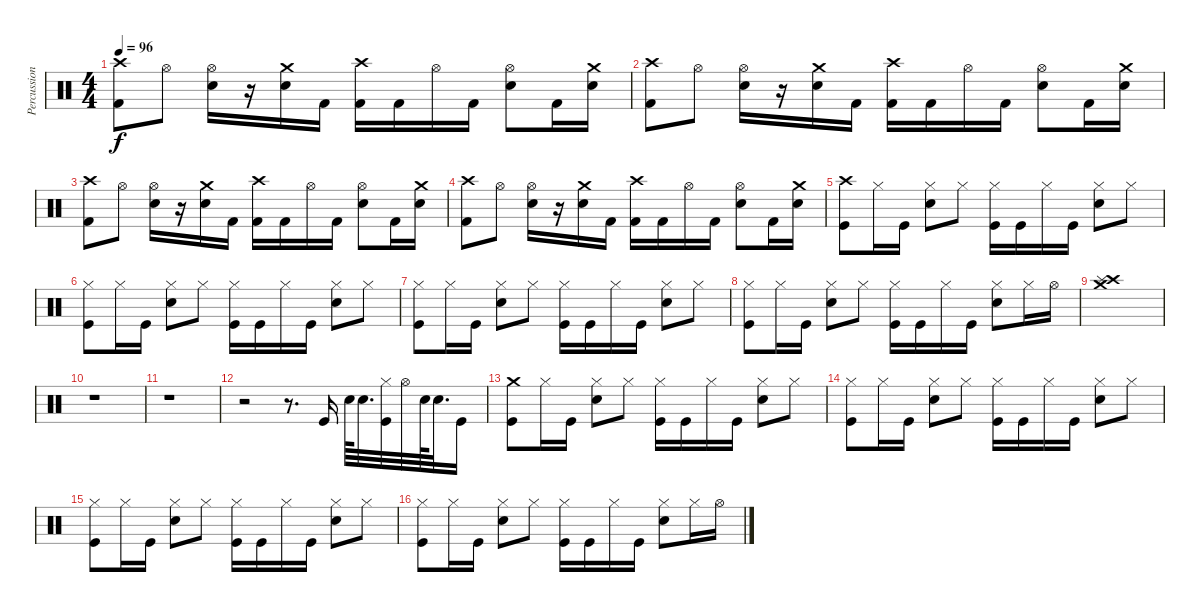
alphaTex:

\track ("Percussion" "Percussion") {instrument percussion}
\staff {score}
\articulation defaults
\ts (4 4)
\tempo 96
\clef neutral
\ks c
("Crash high (hit)" "Kick (hit) 2").8{dy f} "Hi-Hat (open)".8 ("Hi-Hat (open)" "Electric Snare (hit)").16 r.16 ("Crash medium (hit)" "Electric Snare (hit)").16 "Kick (hit) 2".16 ("Crash high (hit)" "Kick (hit) 2").16 "Kick (hit) 2".16 "Hi-Hat (open)".16 "Kick (hit) 2".16 ("Hi-Hat (open)" "Electric Snare (hit)").8 "Kick (hit) 2".16 ("Crash medium (hit)" "Electric Snare (hit)").16 |
("Crash high (hit)" "Kick (hit) 2").8 "Hi-Hat (open)".8 ("Hi-Hat (open)" "Electric Snare (hit)").16 r.16 ("Crash medium (hit)" "Electric Snare (hit)").16 "Kick (hit) 2".16 ("Crash high (hit)" "Kick (hit) 2").16 "Kick (hit) 2".16 "Hi-Hat (open)".16 "Kick (hit) 2".16 ("Hi-Hat (open)" "Electric Snare (hit)").8 "Kick (hit) 2".16 ("Crash medium (hit)" "Electric Snare (hit)").16 |
("Crash high (hit)" "Kick (hit) 2").8 "Hi-Hat (open)".8 ("Hi-Hat (open)" "Electric Snare (hit)").16 r.16 ("Crash medium (hit)" "Electric Snare (hit)").16 "Kick (hit) 2".16 ("Crash high (hit)" "Kick (hit) 2").16 "Kick (hit) 2".16 "Hi-Hat (open)".16 "Kick (hit) 2".16 ("Hi-Hat (open)" "Electric Snare (hit)").8 "Kick (hit) 2".16 ("Crash medium (hit)" "Electric Snare (hit)").16 |
("Crash high (hit)" "Kick (hit) 2").8 "Hi-Hat (open)".8 ("Hi-Hat (open)" "Electric Snare (hit)").16 r.16 ("Crash medium (hit)" "Electric Snare (hit)").16 "Kick (hit) 2".16 ("Crash high (hit)" "Kick (hit) 2").16 "Kick (hit) 2".16 "Hi-Hat (open)".16 "Kick (hit) 2".16 ("Hi-Hat (open)" "Electric Snare (hit)").8 "Kick (hit) 2".16 ("Crash medium (hit)" "Electric Snare (hit)").16 |
("Crash high (hit)" "Kick (hit)").8 "Hi-Hat (closed)".16 "Kick (hit)".16 ("Hi-Hat (closed)" "Snare (hit) 2").8 "Hi-Hat (closed)".8 ("Hi-Hat (closed)" "Kick (hit)").16 "Kick (hit)".16 "Hi-Hat (closed)".16 "Kick (hit)".16 ("Hi-Hat (closed)" "Snare (hit) 2").8 "Hi-Hat (closed)".8 |
("Hi-Hat (closed)" "Kick (hit)").8 "Hi-Hat (closed)".16 "Kick (hit)".16 ("Hi-Hat (closed)" "Snare (hit) 2").8 "Hi-Hat (closed)".8 ("Hi-Hat (closed)" "Kick (hit)").16 "Kick (hit)".16 "Hi-Hat (closed)".16 "Kick (hit)".16 ("Hi-Hat (closed)" "Snare (hit) 2").8 "Hi-Hat (closed)".8 |
("Hi-Hat (closed)" "Kick (hit)").8 "Hi-Hat (closed)".16 "Kick (hit)".16 ("Hi-Hat (closed)" "Snare (hit) 2").8 "Hi-Hat (closed)".8 ("Hi-Hat (closed)" "Kick (hit)").16 "Kick (hit)".16 "Hi-Hat (closed)".16 "Kick (hit)".16 ("Hi-Hat (closed)" "Snare (hit) 2").8 "Hi-Hat (closed)".8 |
("Hi-Hat (closed)" "Kick (hit)").8 "Hi-Hat (closed)".16 "Kick (hit)".16 ("Hi-Hat (closed)" "Snare (hit) 2").8 "Hi-Hat (closed)".8 ("Hi-Hat (closed)" "Kick (hit)").16 "Kick (hit)".16 "Hi-Hat (closed)".16 "Kick (hit)".16 ("Hi-Hat (closed)" "Snare (hit) 2").8 "Hi-Hat (closed)".16 "Hi-Hat (open)".16 |
("Crash high (hit)" "Splash (hit)" "Crash medium (hit)").1 |
r.1 |
r.1 |
r.2 r.8{d} "Kick (hit)".16 "Snare (hit) 2".64 "Snare (hit) 2".32{d} ("Hi-Hat (closed)" "Kick (hit)").32 "Hi-Hat (open)".32 "Snare (hit) 2".64 "Snare (hit) 2".32{d} "Kick (hit)".16 |
("Crash medium (hit)" "Kick (hit)").8 "Hi-Hat (closed)".16 "Kick (hit)".16 ("Hi-Hat (closed)" "Snare (hit) 2").8 "Hi-Hat (closed)".8 ("Hi-Hat (closed)" "Kick (hit)").16 "Kick (hit)".16 "Hi-Hat (closed)".16 "Kick (hit)".16 ("Hi-Hat (closed)" "Snare (hit) 2").8 "Hi-Hat (closed)".8 |
("Hi-Hat (closed)" "Kick (hit)").8 "Hi-Hat (closed)".16 "Kick (hit)".16 ("Hi-Hat (closed)" "Snare (hit) 2").8 "Hi-Hat (closed)".8 ("Hi-Hat (closed)" "Kick (hit)").16 "Kick (hit)".16 "Hi-Hat (closed)".16 "Kick (hit)".16 ("Hi-Hat (closed)" "Snare (hit) 2").8 "Hi-Hat (closed)".8 |
("Hi-Hat (closed)" "Kick (hit)").8 "Hi-Hat (closed)".16 "Kick (hit)".16 ("Hi-Hat (closed)" "Snare (hit) 2").8 "Hi-Hat (closed)".8 ("Hi-Hat (closed)" "Kick (hit)").16 "Kick (hit)".16 "Hi-Hat (closed)".16 "Kick (hit)".16 ("Hi-Hat (closed)" "Snare (hit) 2").8 "Hi-Hat (closed)".8 |
("Hi-Hat (closed)" "Kick (hit)").8 "Hi-Hat (closed)".16 "Kick (hit)".16 ("Hi-Hat (closed)" "Snare (hit) 2").8 "Hi-Hat (closed)".8 ("Hi-Hat (closed)" "Kick (hit)").16 "Kick (hit)".16 "Hi-Hat (closed)".16 "Kick (hit)".16 ("Hi-Hat (closed)" "Snare (hit) 2").8 "Hi-Hat (closed)".16 "Hi-Hat (open)".16
